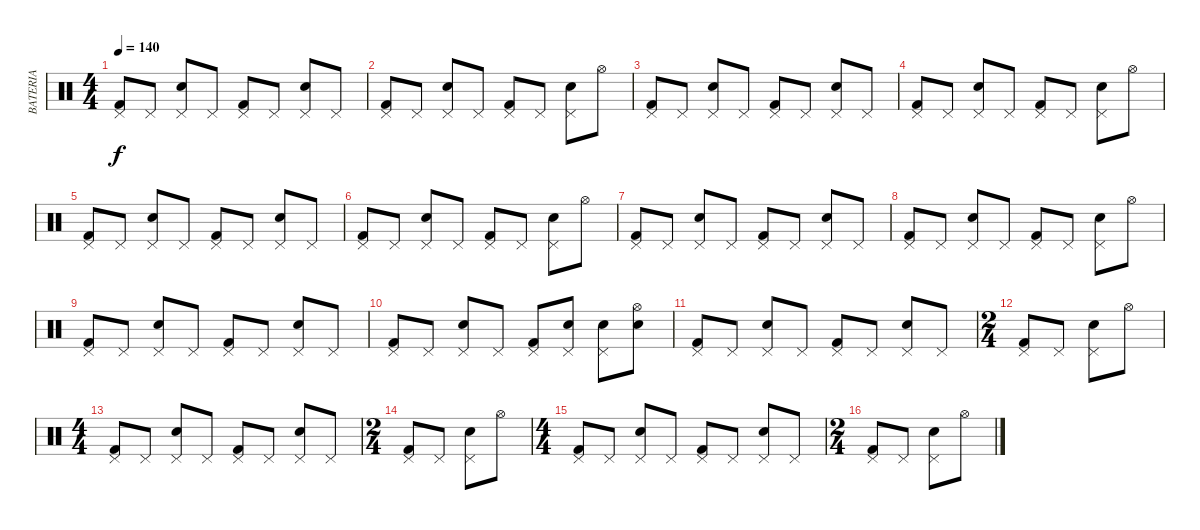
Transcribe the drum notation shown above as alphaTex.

\track ("BATERIA" "BATERIA") {instrument percussion}
\staff {score}
\articulation defaults
\ts (4 4)
\tempo 140
\clef neutral
\ks c
("Kick (hit) 2" "Pedal Hi-Hat (hit)").8{dy f} "Pedal Hi-Hat (hit)".8 ("Snare (hit) 2" "Pedal Hi-Hat (hit)").8 "Pedal Hi-Hat (hit)".8 ("Kick (hit) 2" "Pedal Hi-Hat (hit)").8 "Pedal Hi-Hat (hit)".8 ("Snare (hit) 2" "Pedal Hi-Hat (hit)").8 "Pedal Hi-Hat (hit)".8 |
("Kick (hit) 2" "Pedal Hi-Hat (hit)").8 "Pedal Hi-Hat (hit)".8 ("Snare (hit) 2" "Pedal Hi-Hat (hit)").8 "Pedal Hi-Hat (hit)".8 ("Kick (hit) 2" "Pedal Hi-Hat (hit)").8 "Pedal Hi-Hat (hit)".8 ("Snare (hit) 2" "Pedal Hi-Hat (hit)").8 "Hi-Hat (open)".8 |
("Kick (hit) 2" "Pedal Hi-Hat (hit)").8 "Pedal Hi-Hat (hit)".8 ("Snare (hit) 2" "Pedal Hi-Hat (hit)").8 "Pedal Hi-Hat (hit)".8 ("Kick (hit) 2" "Pedal Hi-Hat (hit)").8 "Pedal Hi-Hat (hit)".8 ("Snare (hit) 2" "Pedal Hi-Hat (hit)").8 "Pedal Hi-Hat (hit)".8 |
("Kick (hit) 2" "Pedal Hi-Hat (hit)").8 "Pedal Hi-Hat (hit)".8 ("Snare (hit) 2" "Pedal Hi-Hat (hit)").8 "Pedal Hi-Hat (hit)".8 ("Kick (hit) 2" "Pedal Hi-Hat (hit)").8 "Pedal Hi-Hat (hit)".8 ("Snare (hit) 2" "Pedal Hi-Hat (hit)").8 "Hi-Hat (open)".8 |
("Kick (hit) 2" "Pedal Hi-Hat (hit)").8 "Pedal Hi-Hat (hit)".8 ("Snare (hit) 2" "Pedal Hi-Hat (hit)").8 "Pedal Hi-Hat (hit)".8 ("Kick (hit) 2" "Pedal Hi-Hat (hit)").8 "Pedal Hi-Hat (hit)".8 ("Snare (hit) 2" "Pedal Hi-Hat (hit)").8 "Pedal Hi-Hat (hit)".8 |
("Kick (hit) 2" "Pedal Hi-Hat (hit)").8 "Pedal Hi-Hat (hit)".8 ("Snare (hit) 2" "Pedal Hi-Hat (hit)").8 "Pedal Hi-Hat (hit)".8 ("Kick (hit) 2" "Pedal Hi-Hat (hit)").8 "Pedal Hi-Hat (hit)".8 ("Snare (hit) 2" "Pedal Hi-Hat (hit)").8 "Hi-Hat (open)".8 |
("Kick (hit) 2" "Pedal Hi-Hat (hit)").8 "Pedal Hi-Hat (hit)".8 ("Snare (hit) 2" "Pedal Hi-Hat (hit)").8 "Pedal Hi-Hat (hit)".8 ("Kick (hit) 2" "Pedal Hi-Hat (hit)").8 "Pedal Hi-Hat (hit)".8 ("Snare (hit) 2" "Pedal Hi-Hat (hit)").8 "Pedal Hi-Hat (hit)".8 |
("Kick (hit) 2" "Pedal Hi-Hat (hit)").8 "Pedal Hi-Hat (hit)".8 ("Snare (hit) 2" "Pedal Hi-Hat (hit)").8 "Pedal Hi-Hat (hit)".8 ("Kick (hit) 2" "Pedal Hi-Hat (hit)").8 "Pedal Hi-Hat (hit)".8 ("Snare (hit) 2" "Pedal Hi-Hat (hit)").8 "Hi-Hat (open)".8 |
("Kick (hit) 2" "Pedal Hi-Hat (hit)").8 "Pedal Hi-Hat (hit)".8 ("Snare (hit) 2" "Pedal Hi-Hat (hit)").8 "Pedal Hi-Hat (hit)".8 ("Kick (hit) 2" "Pedal Hi-Hat (hit)").8 "Pedal Hi-Hat (hit)".8 ("Snare (hit) 2" "Pedal Hi-Hat (hit)").8 "Pedal Hi-Hat (hit)".8 |
("Kick (hit) 2" "Pedal Hi-Hat (hit)").8 "Pedal Hi-Hat (hit)".8 ("Snare (hit) 2" "Pedal Hi-Hat (hit)").8 "Pedal Hi-Hat (hit)".8 ("Kick (hit) 2" "Pedal Hi-Hat (hit)").8 ("Snare (hit) 2" "Pedal Hi-Hat (hit)").8 ("Snare (hit) 2" "Pedal Hi-Hat (hit)").8 ("Snare (hit) 2" "Hi-Hat (open)").8 |
("Kick (hit) 2" "Pedal Hi-Hat (hit)").8 "Pedal Hi-Hat (hit)".8 ("Snare (hit) 2" "Pedal Hi-Hat (hit)").8 "Pedal Hi-Hat (hit)".8 ("Kick (hit) 2" "Pedal Hi-Hat (hit)").8 "Pedal Hi-Hat (hit)".8 ("Snare (hit) 2" "Pedal Hi-Hat (hit)").8 "Pedal Hi-Hat (hit)".8 |
\ts (2 4)
("Kick (hit) 2" "Pedal Hi-Hat (hit)").8 "Pedal Hi-Hat (hit)".8 ("Snare (hit) 2" "Pedal Hi-Hat (hit)").8 "Hi-Hat (open)".8 |
\ts (4 4)
("Kick (hit) 2" "Pedal Hi-Hat (hit)").8 "Pedal Hi-Hat (hit)".8 ("Snare (hit) 2" "Pedal Hi-Hat (hit)").8 "Pedal Hi-Hat (hit)".8 ("Kick (hit) 2" "Pedal Hi-Hat (hit)").8 "Pedal Hi-Hat (hit)".8 ("Snare (hit) 2" "Pedal Hi-Hat (hit)").8 "Pedal Hi-Hat (hit)".8 |
\ts (2 4)
("Kick (hit) 2" "Pedal Hi-Hat (hit)").8 "Pedal Hi-Hat (hit)".8 ("Snare (hit) 2" "Pedal Hi-Hat (hit)").8 "Hi-Hat (open)".8 |
\ts (4 4)
("Kick (hit) 2" "Pedal Hi-Hat (hit)").8 "Pedal Hi-Hat (hit)".8 ("Snare (hit) 2" "Pedal Hi-Hat (hit)").8 "Pedal Hi-Hat (hit)".8 ("Kick (hit) 2" "Pedal Hi-Hat (hit)").8 "Pedal Hi-Hat (hit)".8 ("Snare (hit) 2" "Pedal Hi-Hat (hit)").8 "Pedal Hi-Hat (hit)".8 |
\ts (2 4)
("Kick (hit) 2" "Pedal Hi-Hat (hit)").8 "Pedal Hi-Hat (hit)".8 ("Snare (hit) 2" "Pedal Hi-Hat (hit)").8 "Hi-Hat (open)".8
